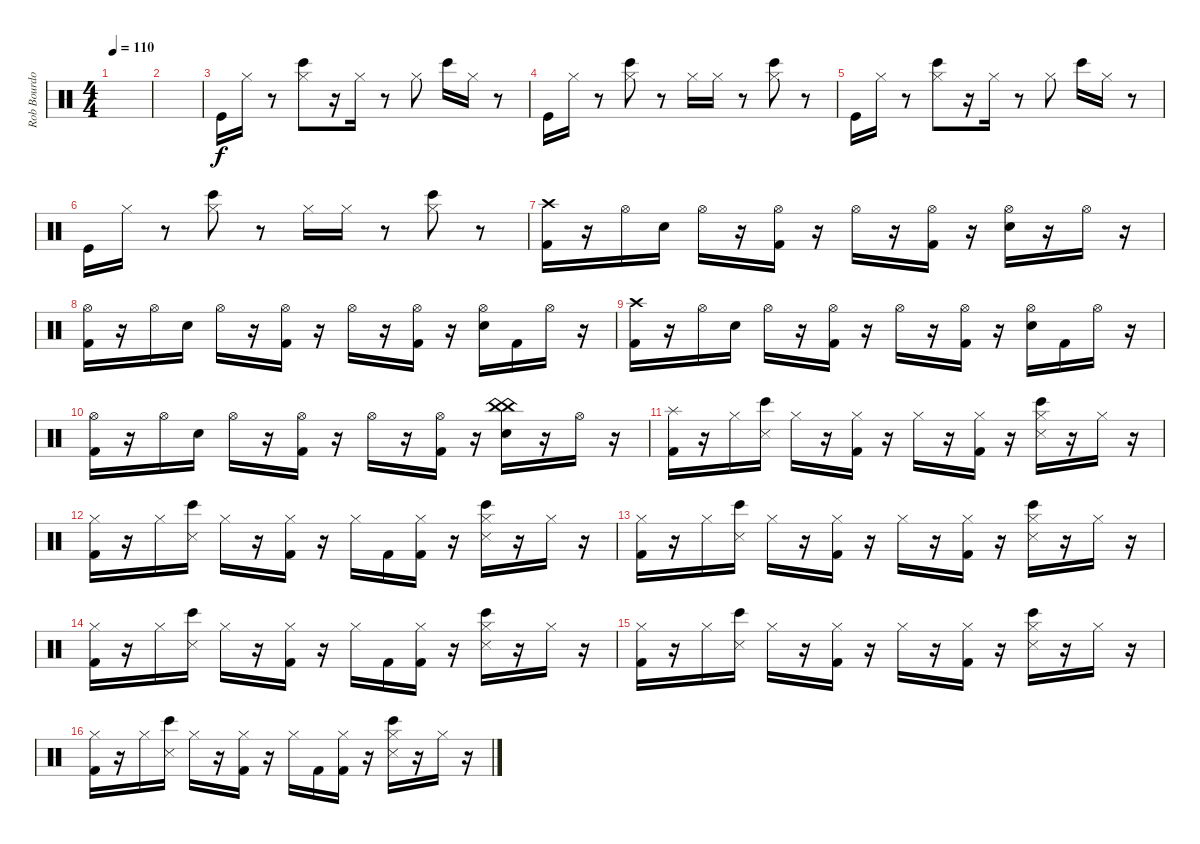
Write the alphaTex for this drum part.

\track ("Rob Bourdon (Drums)" "Rob Bourdo") {instrument percussion}
\staff {score}
\articulation defaults
\ts (4 4)
\tempo 110
\clef neutral
\ks c
|
|
"Kick (hit)".16 "Hi-Hat (closed)".16 r.8 ("Hi-Hat (closed)" "Bongo High (hit)").8 r.16 "Hi-Hat (closed)".16 r.8 "Hi-Hat (closed)".8 "Bongo High (hit)".16 "Hi-Hat (closed)".16 r.8 |
"Kick (hit)".16 "Hi-Hat (closed)".16 r.8 ("Hi-Hat (closed)" "Bongo High (hit)").8 r.8 "Hi-Hat (closed)".16 "Hi-Hat (closed)".16 r.8 ("Hi-Hat (closed)" "Bongo High (hit)").8 r.8 |
"Kick (hit)".16 "Hi-Hat (closed)".16 r.8 ("Hi-Hat (closed)" "Bongo High (hit)").8 r.16 "Hi-Hat (closed)".16 r.8 "Hi-Hat (closed)".8 "Bongo High (hit)".16 "Hi-Hat (closed)".16 r.8 |
"Kick (hit)".16 "Hi-Hat (closed)".16 r.8 ("Hi-Hat (closed)" "Bongo High (hit)").8 r.8 "Hi-Hat (closed)".16 "Hi-Hat (closed)".16 r.8 ("Hi-Hat (closed)" "Bongo High (hit)").8 r.8 |
("Crash high (hit)" "Kick (hit) 2").16 r.16 "Hi-Hat (open)".16 "Electric Snare (hit)".16 "Hi-Hat (open)".16 r.16 ("Hi-Hat (open)" "Kick (hit) 2").16 r.16 "Hi-Hat (open)".16 r.16 ("Hi-Hat (open)" "Kick (hit) 2").16 r.16 ("Hi-Hat (open)" "Electric Snare (hit)").16 r.16 "Hi-Hat (open)".16 r.16 |
("Hi-Hat (open)" "Kick (hit) 2").16 r.16 "Hi-Hat (open)".16 "Electric Snare (hit)".16 "Hi-Hat (open)".16 r.16 ("Hi-Hat (open)" "Kick (hit) 2").16 r.16 "Hi-Hat (open)".16 r.16 ("Hi-Hat (open)" "Kick (hit) 2").16 r.16 ("Hi-Hat (open)" "Electric Snare (hit)").16 "Kick (hit) 2".16 "Hi-Hat (open)".16 r.16 |
("Crash high (hit)" "Kick (hit) 2").16 r.16 "Hi-Hat (open)".16 "Electric Snare (hit)".16 "Hi-Hat (open)".16 r.16 ("Hi-Hat (open)" "Kick (hit) 2").16 r.16 "Hi-Hat (open)".16 r.16 ("Hi-Hat (open)" "Kick (hit) 2").16 r.16 ("Hi-Hat (open)" "Electric Snare (hit)").16 "Kick (hit) 2".16 "Hi-Hat (open)".16 r.16 |
("Hi-Hat (open)" "Kick (hit) 2").16 r.16 "Hi-Hat (open)".16 "Electric Snare (hit)".16 "Hi-Hat (open)".16 r.16 ("Hi-Hat (open)" "Kick (hit) 2").16 r.16 "Hi-Hat (open)".16 r.16 ("Hi-Hat (open)" "Kick (hit) 2").16 r.16 ("China (hit)" "China (hit)" "Electric Snare (hit)").16 r.16 "Hi-Hat (open)".16 r.16 |
("Splash (hit)" "Kick (hit) 2").16 r.16 "Hi-Hat (closed)".16 ("Snare (side stick) 3" "Bongo High (hit)").16 "Hi-Hat (closed)".16 r.16 ("Hi-Hat (closed)" "Kick (hit) 2").16 r.16 "Hi-Hat (closed)".16 r.16 ("Hi-Hat (closed)" "Kick (hit) 2").16 r.16 ("Hi-Hat (closed)" "Snare (side stick) 3" "Bongo High (hit)").16 r.16 "Hi-Hat (closed)".16 r.16 |
("Hi-Hat (closed)" "Kick (hit) 2").16 r.16 "Hi-Hat (closed)".16 ("Snare (side stick) 3" "Bongo High (hit)").16 "Hi-Hat (closed)".16 r.16 ("Hi-Hat (closed)" "Kick (hit) 2").16 r.16 "Hi-Hat (closed)".16 "Kick (hit) 2".16 ("Hi-Hat (closed)" "Kick (hit) 2").16 r.16 ("Hi-Hat (closed)" "Snare (side stick) 3" "Bongo High (hit)").16 r.16 "Hi-Hat (closed)".16 r.16 |
("Hi-Hat (closed)" "Kick (hit) 2").16 r.16 "Hi-Hat (closed)".16 ("Snare (side stick) 3" "Bongo High (hit)").16 "Hi-Hat (closed)".16 r.16 ("Hi-Hat (closed)" "Kick (hit) 2").16 r.16 "Hi-Hat (closed)".16 r.16 ("Hi-Hat (closed)" "Kick (hit) 2").16 r.16 ("Hi-Hat (closed)" "Snare (side stick) 3" "Bongo High (hit)").16 r.16 "Hi-Hat (closed)".16 r.16 |
("Hi-Hat (closed)" "Kick (hit) 2").16 r.16 "Hi-Hat (closed)".16 ("Snare (side stick) 3" "Bongo High (hit)").16 "Hi-Hat (closed)".16 r.16 ("Hi-Hat (closed)" "Kick (hit) 2").16 r.16 "Hi-Hat (closed)".16 "Kick (hit) 2".16 ("Hi-Hat (closed)" "Kick (hit) 2").16 r.16 ("Hi-Hat (closed)" "Snare (side stick) 3" "Bongo High (hit)").16 r.16 "Hi-Hat (closed)".16 r.16 |
("Hi-Hat (closed)" "Kick (hit) 2").16 r.16 "Hi-Hat (closed)".16 ("Snare (side stick) 3" "Bongo High (hit)").16 "Hi-Hat (closed)".16 r.16 ("Hi-Hat (closed)" "Kick (hit) 2").16 r.16 "Hi-Hat (closed)".16 r.16 ("Hi-Hat (closed)" "Kick (hit) 2").16 r.16 ("Hi-Hat (closed)" "Snare (side stick) 3" "Bongo High (hit)").16 r.16 "Hi-Hat (closed)".16 r.16 |
("Hi-Hat (closed)" "Kick (hit) 2").16 r.16 "Hi-Hat (closed)".16 ("Snare (side stick) 3" "Bongo High (hit)").16 "Hi-Hat (closed)".16 r.16 ("Hi-Hat (closed)" "Kick (hit) 2").16 r.16 "Hi-Hat (closed)".16 "Kick (hit) 2".16 ("Hi-Hat (closed)" "Kick (hit) 2").16 r.16 ("Hi-Hat (closed)" "Snare (side stick) 3" "Bongo High (hit)").16 r.16 "Hi-Hat (closed)".16 r.16
